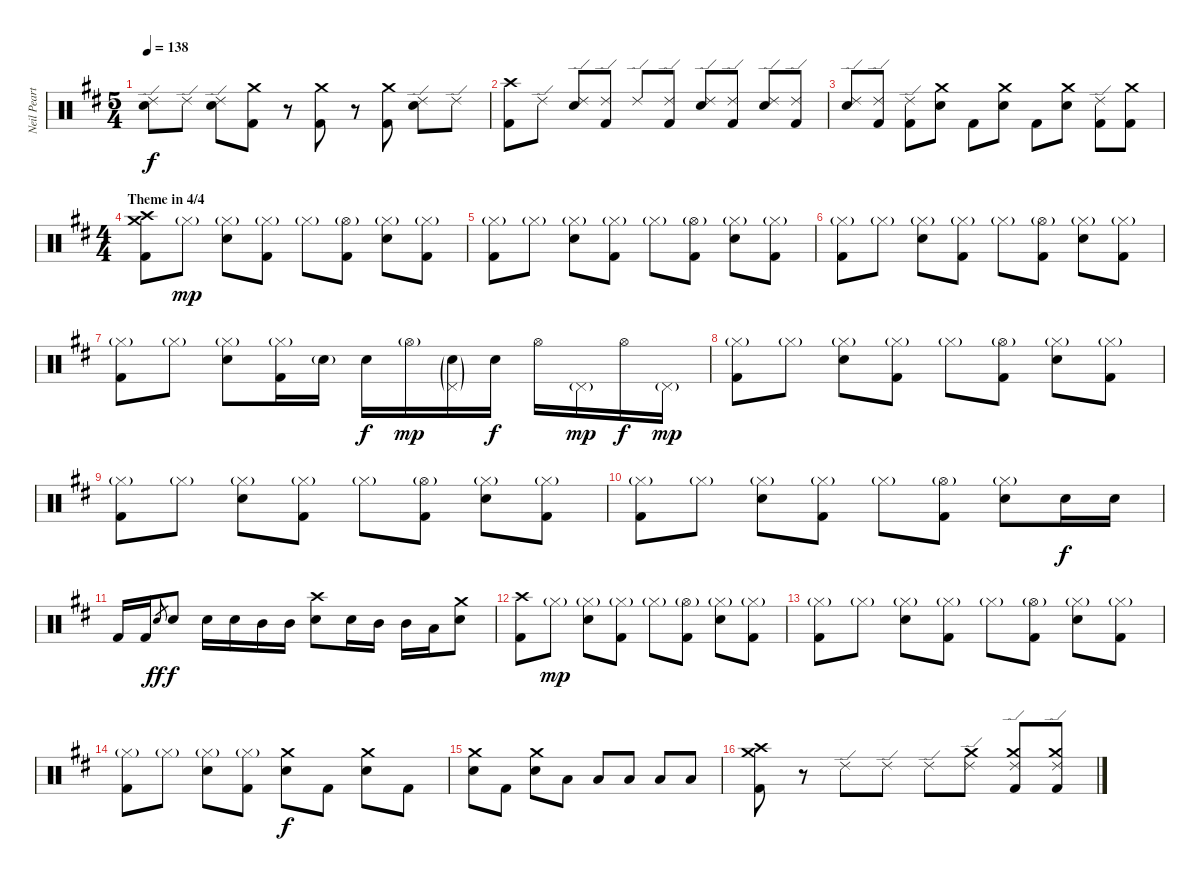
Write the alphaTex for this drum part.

\track ("Neil Peart" "Neil Peart") {instrument percussion}
\staff {score}
\articulation defaults
\ts (5 4)
\tempo 138
\clef neutral
\ks d
("Ride (edge) 2" "Electric Snare (hit)").8{dy f} "Ride (edge) 2".8 ("Ride (edge) 2" "Electric Snare (hit)").8 ("Crash medium (hit)" "Kick (hit) 2").8 r.8 ("Crash medium (hit)" "Kick (hit) 2").8 r.8 ("Crash medium (hit)" "Kick (hit) 2").8 ("Ride (edge) 2" "Electric Snare (hit)").8 "Ride (edge) 2".8 |
("Crash high (hit)" "Kick (hit) 2").8 "Ride (edge) 2".8 ("Ride (edge) 2" "Electric Snare (hit)").8 ("Ride (edge) 2" "Kick (hit) 2").8 "Ride (edge) 2".8 ("Ride (edge) 2" "Kick (hit) 2").8 ("Ride (edge) 2" "Electric Snare (hit)").8 ("Ride (edge) 2" "Kick (hit) 2").8 ("Ride (edge) 2" "Electric Snare (hit)").8 ("Ride (edge) 2" "Kick (hit) 2").8 |
("Ride (edge) 2" "Electric Snare (hit)").8 ("Ride (edge) 2" "Kick (hit) 2").8 ("Ride (edge) 2" "Kick (hit) 2").8 ("Crash medium (hit)" "Electric Snare (hit)").8 "Kick (hit) 2".8 ("Crash medium (hit)" "Electric Snare (hit)").8 "Kick (hit) 2".8 ("Crash medium (hit)" "Electric Snare (hit)").8 ("Ride (edge) 2" "Kick (hit) 2").8 ("Crash medium (hit)" "Kick (hit) 2").8 |
\ts (4 4)
\section ("" "Theme in 4/4")
("Crash high (hit)" "Crash medium (hit)" "Kick (hit) 2").8 "Hi-Hat (closed)"{g}.8{dy mp} ("Hi-Hat (closed)"{g} "Electric Snare (hit)").8 ("Hi-Hat (closed)"{g} "Kick (hit) 2").8 "Hi-Hat (closed)"{g}.8 ("Hi-Hat (open)"{g} "Kick (hit) 2").8 ("Hi-Hat (closed)"{g} "Electric Snare (hit)").8 ("Hi-Hat (closed)"{g} "Kick (hit) 2").8 |
("Hi-Hat (closed)"{g} "Kick (hit) 2").8 "Hi-Hat (closed)"{g}.8 ("Hi-Hat (closed)"{g} "Electric Snare (hit)").8 ("Hi-Hat (closed)"{g} "Kick (hit) 2").8 "Hi-Hat (closed)"{g}.8 ("Hi-Hat (open)"{g} "Kick (hit) 2").8 ("Hi-Hat (closed)"{g} "Electric Snare (hit)").8 ("Hi-Hat (closed)"{g} "Kick (hit) 2").8 |
("Hi-Hat (closed)"{g} "Kick (hit) 2").8 "Hi-Hat (closed)"{g}.8 ("Hi-Hat (closed)"{g} "Electric Snare (hit)").8 ("Hi-Hat (closed)"{g} "Kick (hit) 2").8 "Hi-Hat (closed)"{g}.8 ("Hi-Hat (open)"{g} "Kick (hit) 2").8 ("Hi-Hat (closed)"{g} "Electric Snare (hit)").8 ("Hi-Hat (closed)"{g} "Kick (hit) 2").8 |
("Hi-Hat (closed)"{g} "Kick (hit) 2").8 "Hi-Hat (closed)"{g}.8 ("Hi-Hat (closed)"{g} "Electric Snare (hit)").8 ("Hi-Hat (closed)"{g} "Kick (hit) 2").16 "Electric Snare (hit)"{g}.16 "Electric Snare (hit)".16{dy f} "Hi-Hat (open)"{g}.16{dy mp} ("Electric Snare (hit)"{g} "Pedal Hi-Hat (hit)"{g}).16 "Electric Snare (hit)".16{dy f} "Hi-Hat (open)".16 "Pedal Hi-Hat (hit)"{g}.16{dy mp} "Hi-Hat (open)".16{dy f} "Pedal Hi-Hat (hit)"{g}.16{dy mp} |
("Hi-Hat (closed)"{g} "Kick (hit) 2").8 "Hi-Hat (closed)"{g}.8 ("Hi-Hat (closed)"{g} "Electric Snare (hit)").8 ("Hi-Hat (closed)"{g} "Kick (hit) 2").8 "Hi-Hat (closed)"{g}.8 ("Hi-Hat (open)"{g} "Kick (hit) 2").8 ("Hi-Hat (closed)"{g} "Electric Snare (hit)").8 ("Hi-Hat (closed)"{g} "Kick (hit) 2").8 |
("Hi-Hat (closed)"{g} "Kick (hit) 2").8 "Hi-Hat (closed)"{g}.8 ("Hi-Hat (closed)"{g} "Electric Snare (hit)").8 ("Hi-Hat (closed)"{g} "Kick (hit) 2").8 "Hi-Hat (closed)"{g}.8 ("Hi-Hat (open)"{g} "Kick (hit) 2").8 ("Hi-Hat (closed)"{g} "Electric Snare (hit)").8 ("Hi-Hat (closed)"{g} "Kick (hit) 2").8 |
("Hi-Hat (closed)"{g} "Kick (hit) 2").8 "Hi-Hat (closed)"{g}.8 ("Hi-Hat (closed)"{g} "Electric Snare (hit)").8 ("Hi-Hat (closed)"{g} "Kick (hit) 2").8 "Hi-Hat (closed)"{g}.8 ("Hi-Hat (open)"{g} "Kick (hit) 2").8 ("Hi-Hat (closed)"{g} "Electric Snare (hit)").8 "Electric Snare (hit)".16{dy f} "Electric Snare (hit)".16 |
"Kick (hit) 2".16 "Kick (hit) 2".16 "Electric Snare (hit)".8{gr dy ff} "Electric Snare (hit)".8{dy f} "Electric Snare (hit)".16 "Electric Snare (hit)".16 "Mid Tom (hit)".16 "Mid Tom (hit)".16 ("Crash high (hit)" "Electric Snare (hit)").8 "Electric Snare (hit)".16 "Mid Tom (hit)".16 "Mid Tom (hit)".16 "Low Tom (hit)".16 ("Crash medium (hit)" "Electric Snare (hit)").8 |
("Crash high (hit)" "Kick (hit) 2").8 "Hi-Hat (closed)"{g}.8{dy mp} ("Hi-Hat (closed)"{g} "Electric Snare (hit)").8 ("Hi-Hat (closed)"{g} "Kick (hit) 2").8 "Hi-Hat (closed)"{g}.8 ("Hi-Hat (open)"{g} "Kick (hit) 2").8 ("Hi-Hat (closed)"{g} "Electric Snare (hit)").8 ("Hi-Hat (closed)"{g} "Kick (hit) 2").8 |
("Hi-Hat (closed)"{g} "Kick (hit) 2").8 "Hi-Hat (closed)"{g}.8 ("Hi-Hat (closed)"{g} "Electric Snare (hit)").8 ("Hi-Hat (closed)"{g} "Kick (hit) 2").8 "Hi-Hat (closed)"{g}.8 ("Hi-Hat (open)"{g} "Kick (hit) 2").8 ("Hi-Hat (closed)"{g} "Electric Snare (hit)").8 ("Hi-Hat (closed)"{g} "Kick (hit) 2").8 |
("Hi-Hat (closed)"{g} "Kick (hit) 2").8 "Hi-Hat (closed)"{g}.8 ("Hi-Hat (closed)"{g} "Electric Snare (hit)").8 ("Hi-Hat (closed)"{g} "Kick (hit) 2").8 ("Crash medium (hit)" "Electric Snare (hit)").8{dy f} "Kick (hit) 2".8 ("Crash medium (hit)" "Electric Snare (hit)").8 "Kick (hit) 2".8 |
("Crash medium (hit)" "Electric Snare (hit)").8 "Kick (hit) 2".8 ("Crash medium (hit)" "Electric Snare (hit)").8 "Low Tom (hit)".8 "Low Tom (hit)".8 "Low Tom (hit)".8 "Low Floor Tom (hit)".8 "Low Floor Tom (hit)".8 |
("Crash high (hit)" "Crash medium (hit)" "Kick (hit) 2").8 r.8 "Ride (edge) 2".8 "Ride (edge) 2".8 "Ride (edge) 2".8 ("Crash medium (hit)" "Ride (edge) 2").8 ("Crash medium (hit)" "Ride (edge) 2" "Kick (hit) 2").8 ("Crash medium (hit)" "Ride (edge) 2" "Kick (hit) 2").8
